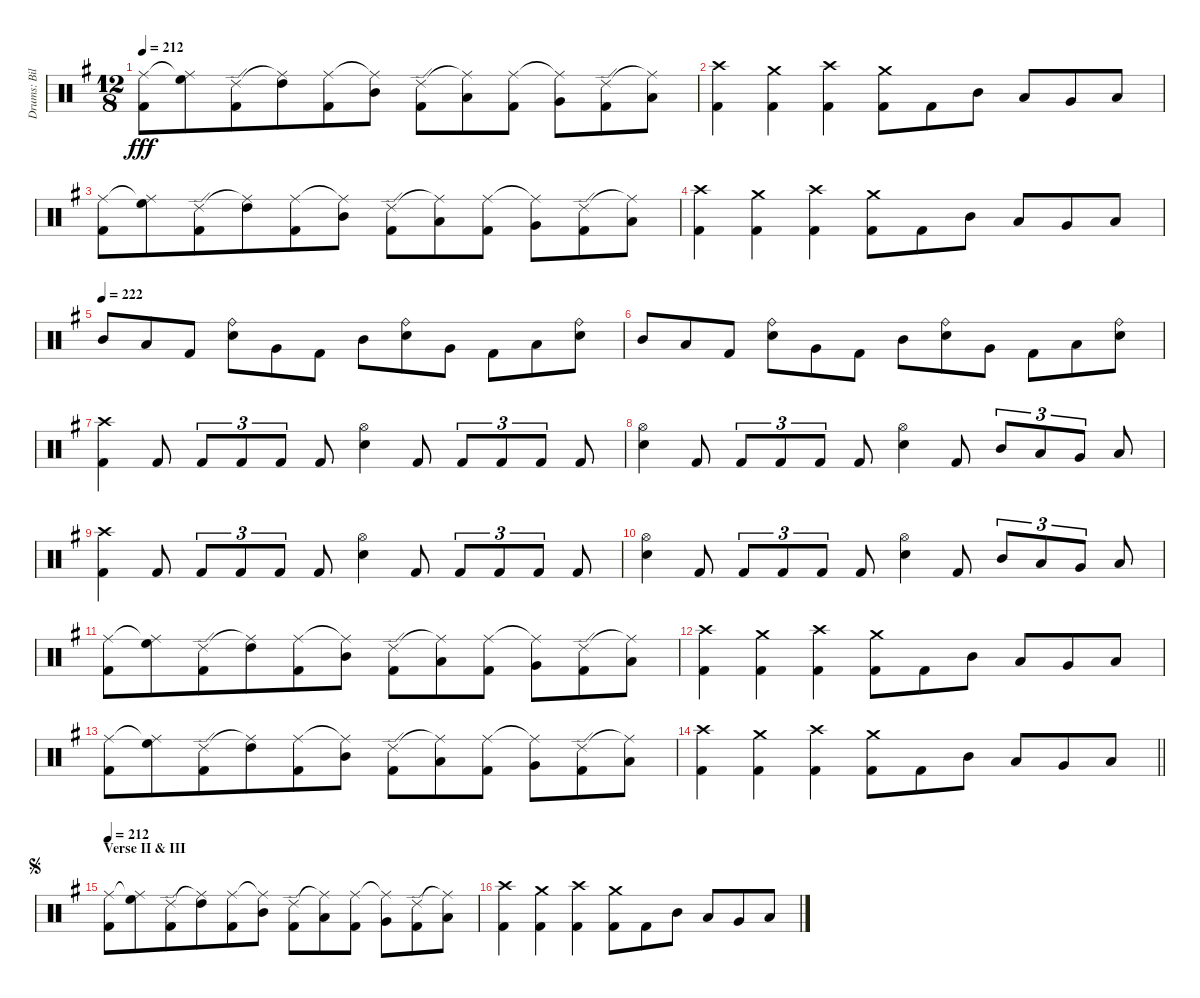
\track ("Drums: Bill" "Drums: Bil") {instrument percussion}
\staff {score}
\articulation defaults
\ts (12 8)
\tempo 212
\clef neutral
\ks g
("Ride (middle)" "Kick (hit) 2").8{dy fff} ("Ride (middle)"{t} "High Floor Tom (hit)").8 ("Ride (edge) 2" "Kick (hit) 2").8{beam merge} ("Ride (middle)"{t} "High Tom (hit)").8 ("Ride (middle)" "Kick (hit) 2").8 ("Ride (middle)"{t} "Mid Tom (hit)").8 ("Ride (edge) 2" "Kick (hit) 2").8{beam merge} ("Ride (middle)"{t} "Low Tom (hit)").8 ("Ride (middle)" "Kick (hit) 2").8 ("Ride (middle)"{t} "Very Low Tom (hit)").8 ("Ride (edge) 2" "Kick (hit) 2").8{beam merge} ("Ride (middle)"{t} "Low Floor Tom (hit)").8 |
("Crash high (hit)" "Kick (hit) 2").4 ("Crash medium (hit)" "Kick (hit) 2").4 ("Crash high (hit)" "Kick (hit) 2").4 ("Crash medium (hit)" "Kick (hit) 2").8 "Kick (hit) 2".8 "Mid Tom (hit)".8 "Low Tom (hit)".8 "Very Low Tom (hit)".8 "Low Floor Tom (hit)".8 |
("Ride (middle)" "Kick (hit) 2").8 ("Ride (middle)"{t} "High Floor Tom (hit)").8 ("Ride (edge) 2" "Kick (hit) 2").8{beam merge} ("Ride (middle)"{t} "High Tom (hit)").8 ("Ride (middle)" "Kick (hit) 2").8 ("Ride (middle)"{t} "Mid Tom (hit)").8 ("Ride (edge) 2" "Kick (hit) 2").8{beam merge} ("Ride (middle)"{t} "Low Tom (hit)").8 ("Ride (middle)" "Kick (hit) 2").8 ("Ride (middle)"{t} "Very Low Tom (hit)").8 ("Ride (edge) 2" "Kick (hit) 2").8{beam merge} ("Ride (middle)"{t} "Low Floor Tom (hit)").8 |
("Crash high (hit)" "Kick (hit) 2").4 ("Crash medium (hit)" "Kick (hit) 2").4 ("Crash high (hit)" "Kick (hit) 2").4 ("Crash medium (hit)" "Kick (hit) 2").8 "Kick (hit) 2".8 "Mid Tom (hit)".8 "Low Tom (hit)".8 "Very Low Tom (hit)".8 "Low Floor Tom (hit)".8 |
\tempo (222)
"Mid Tom (hit)".8 "Low Tom (hit)".8 "Kick (hit) 2".8 ("Ride (bell)" "Electric Snare (hit)").8 "Very Low Tom (hit)".8 "Kick (hit) 2".8 "Mid Tom (hit)".8 ("Ride (bell)" "Electric Snare (hit)").8 "Very Low Tom (hit)".8 "Kick (hit) 2".8 "Low Tom (hit)".8 ("Ride (bell)" "Electric Snare (hit)").8 |
"Mid Tom (hit)".8 "Low Tom (hit)".8 "Kick (hit) 2".8 ("Ride (bell)" "Electric Snare (hit)").8 "Very Low Tom (hit)".8 "Kick (hit) 2".8 "Mid Tom (hit)".8 ("Ride (bell)" "Electric Snare (hit)").8 "Very Low Tom (hit)".8 "Kick (hit) 2".8 "Low Tom (hit)".8 ("Ride (bell)" "Electric Snare (hit)").8 |
("Crash high (hit)" "Kick (hit) 2").4 "Kick (hit) 2".8 "Kick (hit) 2".8{tu (3 2)} "Kick (hit) 2".8{tu (3 2)} "Kick (hit) 2".8{tu (3 2)} "Kick (hit) 2".8 ("Hi-Hat (open)" "Electric Snare (hit)").4 "Kick (hit) 2".8 "Kick (hit) 2".8{tu (3 2)} "Kick (hit) 2".8{tu (3 2)} "Kick (hit) 2".8{tu (3 2)} "Kick (hit) 2".8 |
("Hi-Hat (open)" "Electric Snare (hit)").4 "Kick (hit) 2".8 "Kick (hit) 2".8{tu (3 2)} "Kick (hit) 2".8{tu (3 2)} "Kick (hit) 2".8{tu (3 2)} "Kick (hit) 2".8 ("Hi-Hat (open)" "Electric Snare (hit)").4 "Kick (hit) 2".8 "Mid Tom (hit)".8{tu (3 2)} "Low Tom (hit)".8{tu (3 2)} "Very Low Tom (hit)".8{tu (3 2)} "Low Floor Tom (hit)".8 |
("Crash high (hit)" "Kick (hit) 2").4 "Kick (hit) 2".8 "Kick (hit) 2".8{tu (3 2)} "Kick (hit) 2".8{tu (3 2)} "Kick (hit) 2".8{tu (3 2)} "Kick (hit) 2".8 ("Hi-Hat (open)" "Electric Snare (hit)").4 "Kick (hit) 2".8 "Kick (hit) 2".8{tu (3 2)} "Kick (hit) 2".8{tu (3 2)} "Kick (hit) 2".8{tu (3 2)} "Kick (hit) 2".8 |
("Hi-Hat (open)" "Electric Snare (hit)").4 "Kick (hit) 2".8 "Kick (hit) 2".8{tu (3 2)} "Kick (hit) 2".8{tu (3 2)} "Kick (hit) 2".8{tu (3 2)} "Kick (hit) 2".8 ("Hi-Hat (open)" "Electric Snare (hit)").4 "Kick (hit) 2".8 "Mid Tom (hit)".8{tu (3 2)} "Low Tom (hit)".8{tu (3 2)} "Very Low Tom (hit)".8{tu (3 2)} "Low Floor Tom (hit)".8 |
("Ride (middle)" "Kick (hit) 2").8 ("Ride (middle)"{t} "High Floor Tom (hit)").8 ("Ride (edge) 2" "Kick (hit) 2").8{beam merge} ("Ride (middle)"{t} "High Tom (hit)").8 ("Ride (middle)" "Kick (hit) 2").8 ("Ride (middle)"{t} "Mid Tom (hit)").8 ("Ride (edge) 2" "Kick (hit) 2").8{beam merge} ("Ride (middle)"{t} "Low Tom (hit)").8 ("Ride (middle)" "Kick (hit) 2").8 ("Ride (middle)"{t} "Very Low Tom (hit)").8 ("Ride (edge) 2" "Kick (hit) 2").8{beam merge} ("Ride (middle)"{t} "Low Floor Tom (hit)").8 |
("Crash high (hit)" "Kick (hit) 2").4 ("Crash medium (hit)" "Kick (hit) 2").4 ("Crash high (hit)" "Kick (hit) 2").4 ("Crash medium (hit)" "Kick (hit) 2").8 "Kick (hit) 2".8 "Mid Tom (hit)".8 "Low Tom (hit)".8 "Very Low Tom (hit)".8 "Low Floor Tom (hit)".8 |
("Ride (middle)" "Kick (hit) 2").8 ("Ride (middle)"{t} "High Floor Tom (hit)").8 ("Ride (edge) 2" "Kick (hit) 2").8{beam merge} ("Ride (middle)"{t} "High Tom (hit)").8 ("Ride (middle)" "Kick (hit) 2").8 ("Ride (middle)"{t} "Mid Tom (hit)").8 ("Ride (edge) 2" "Kick (hit) 2").8{beam merge} ("Ride (middle)"{t} "Low Tom (hit)").8 ("Ride (middle)" "Kick (hit) 2").8 ("Ride (middle)"{t} "Very Low Tom (hit)").8 ("Ride (edge) 2" "Kick (hit) 2").8{beam merge} ("Ride (middle)"{t} "Low Floor Tom (hit)").8 |
\barLineRight lightlight
("Crash high (hit)" "Kick (hit) 2").4 ("Crash medium (hit)" "Kick (hit) 2").4 ("Crash high (hit)" "Kick (hit) 2").4 ("Crash medium (hit)" "Kick (hit) 2").8 "Kick (hit) 2".8 "Mid Tom (hit)".8 "Low Tom (hit)".8 "Very Low Tom (hit)".8 "Low Floor Tom (hit)".8 |
\section ("" "Verse II & III")
\jump segno
\tempo 144
\tempo 212
("Ride (middle)" "Kick (hit) 2").8 ("Ride (middle)"{t} "High Floor Tom (hit)").8 ("Ride (edge) 2" "Kick (hit) 2").8{beam merge} ("Ride (middle)"{t} "High Tom (hit)").8 ("Ride (middle)" "Kick (hit) 2").8 ("Ride (middle)"{t} "Mid Tom (hit)").8 ("Ride (edge) 2" "Kick (hit) 2").8{beam merge} ("Ride (middle)"{t} "Low Tom (hit)").8 ("Ride (middle)" "Kick (hit) 2").8 ("Ride (middle)"{t} "Very Low Tom (hit)").8 ("Ride (edge) 2" "Kick (hit) 2").8{beam merge} ("Ride (middle)"{t} "Low Floor Tom (hit)").8 |
("Crash high (hit)" "Kick (hit) 2").4 ("Crash medium (hit)" "Kick (hit) 2").4 ("Crash high (hit)" "Kick (hit) 2").4 ("Crash medium (hit)" "Kick (hit) 2").8 "Kick (hit) 2".8 "Mid Tom (hit)".8 "Low Tom (hit)".8 "Very Low Tom (hit)".8 "Low Floor Tom (hit)".8
